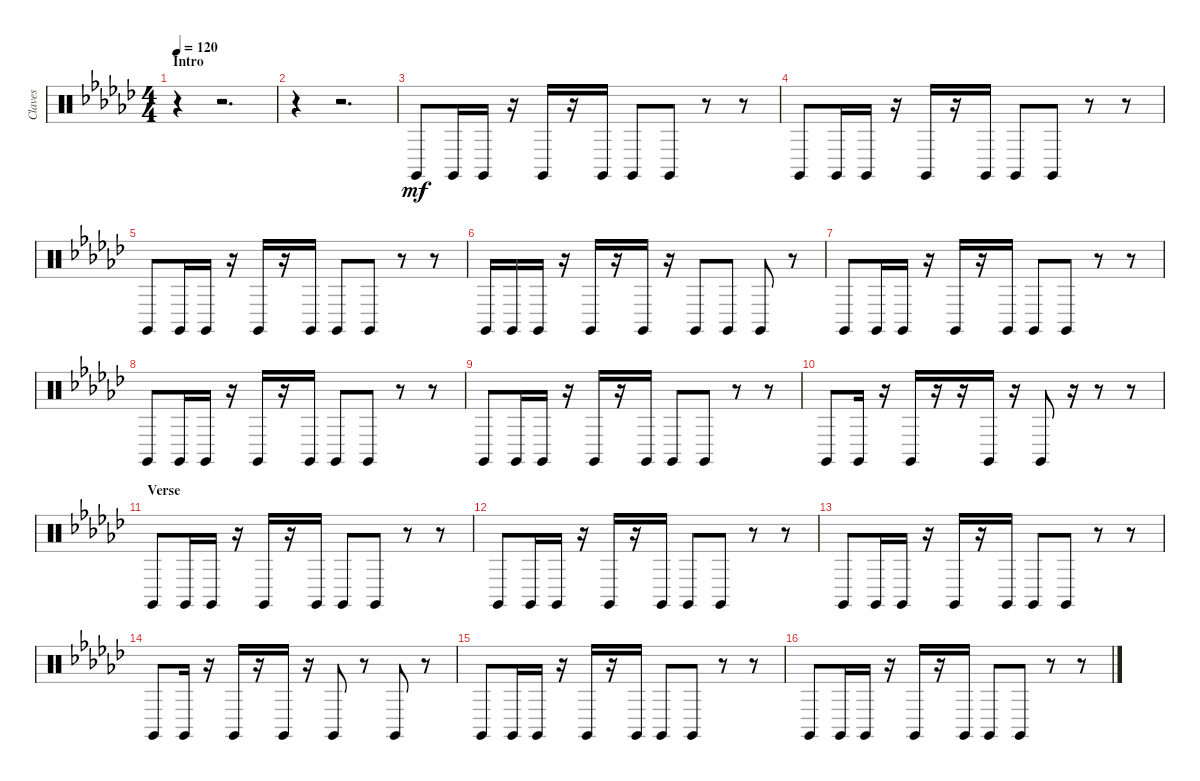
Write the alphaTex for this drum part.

\track ("Claves" "Claves") {instrument percussion}
\staff {score}
\articulation defaults
\ts (4 4)
\section ("" "Intro")
\tempo 120
\clef neutral
\ks ebminor
r.4{dy mf} r.2{d} |
r.4 r.2{d} |
"Claves (hit)".8 "Claves (hit)".16 "Claves (hit)".16 r.16 "Claves (hit)".16 r.16 "Claves (hit)".16 "Claves (hit)".8 "Claves (hit)".8 r.8 r.8 |
"Claves (hit)".8 "Claves (hit)".16 "Claves (hit)".16 r.16 "Claves (hit)".16 r.16 "Claves (hit)".16 "Claves (hit)".8 "Claves (hit)".8 r.8 r.8 |
"Claves (hit)".8 "Claves (hit)".16 "Claves (hit)".16 r.16 "Claves (hit)".16 r.16 "Claves (hit)".16 "Claves (hit)".8 "Claves (hit)".8 r.8 r.8 |
"Claves (hit)".16 "Claves (hit)".16 "Claves (hit)".16 r.16 "Claves (hit)".16 r.16 "Claves (hit)".16 r.16 "Claves (hit)".8 "Claves (hit)".8 "Claves (hit)".8 r.8 |
"Claves (hit)".8 "Claves (hit)".16 "Claves (hit)".16 r.16 "Claves (hit)".16 r.16 "Claves (hit)".16 "Claves (hit)".8 "Claves (hit)".8 r.8 r.8 |
"Claves (hit)".8 "Claves (hit)".16 "Claves (hit)".16 r.16 "Claves (hit)".16 r.16 "Claves (hit)".16 "Claves (hit)".8 "Claves (hit)".8 r.8 r.8 |
"Claves (hit)".8 "Claves (hit)".16 "Claves (hit)".16 r.16 "Claves (hit)".16 r.16 "Claves (hit)".16 "Claves (hit)".8 "Claves (hit)".8 r.8 r.8 |
"Claves (hit)".8 "Claves (hit)".16 r.16 "Claves (hit)".16 r.16 r.16 "Claves (hit)".16 r.16 "Claves (hit)".8 r.16 r.8 r.8 |
\section ("" "Verse")
"Claves (hit)".8 "Claves (hit)".16 "Claves (hit)".16 r.16 "Claves (hit)".16 r.16 "Claves (hit)".16 "Claves (hit)".8 "Claves (hit)".8 r.8 r.8 |
"Claves (hit)".8 "Claves (hit)".16 "Claves (hit)".16 r.16 "Claves (hit)".16 r.16 "Claves (hit)".16 "Claves (hit)".8 "Claves (hit)".8 r.8 r.8 |
"Claves (hit)".8 "Claves (hit)".16 "Claves (hit)".16 r.16 "Claves (hit)".16 r.16 "Claves (hit)".16 "Claves (hit)".8 "Claves (hit)".8 r.8 r.8 |
"Claves (hit)".8 "Claves (hit)".16 r.16 "Claves (hit)".16 r.16 "Claves (hit)".16 r.16 "Claves (hit)".8 r.8 "Claves (hit)".8 r.8 |
"Claves (hit)".8 "Claves (hit)".16 "Claves (hit)".16 r.16 "Claves (hit)".16 r.16 "Claves (hit)".16 "Claves (hit)".8 "Claves (hit)".8 r.8 r.8 |
"Claves (hit)".8 "Claves (hit)".16 "Claves (hit)".16 r.16 "Claves (hit)".16 r.16 "Claves (hit)".16 "Claves (hit)".8 "Claves (hit)".8 r.8 r.8
